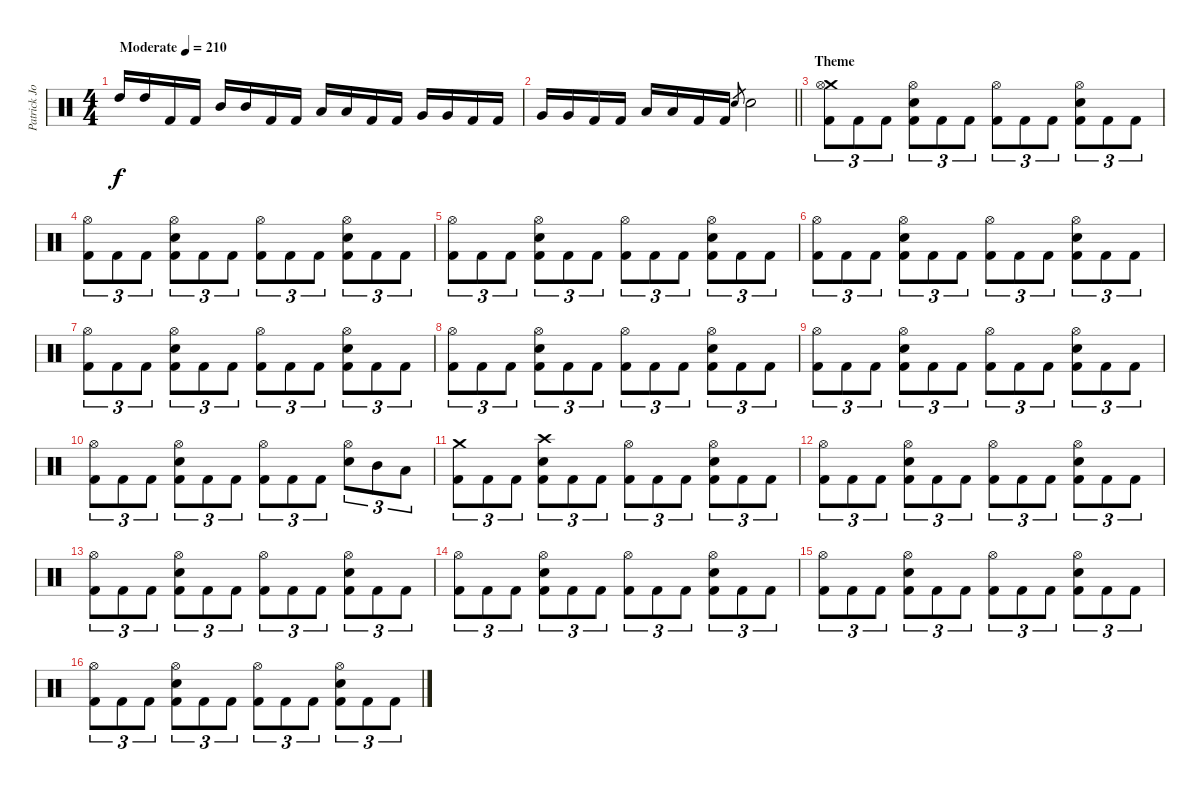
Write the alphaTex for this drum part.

\track ("Patrick Johansson" "Patrick Jo") {instrument percussion}
\staff {score}
\articulation defaults
\ts (4 4)
\tempo (210 "Moderate")
\clef neutral
\ks c "High Tom (hit)".16{dy f} "High Tom (hit)".16 "Kick (hit) 2".16 "Kick (hit) 2".16 "Mid Tom (hit)".16 "Mid Tom (hit)".16 "Kick (hit) 2".16 "Kick (hit) 2".16 "Low Tom (hit)".16 "Low Tom (hit)".16 "Kick (hit) 2".16 "Kick (hit) 2".16 "Very Low Tom (hit)".16 "Very Low Tom (hit)".16 "Kick (hit) 2".16 "Kick (hit) 2".16
|
\barLineRight lightlight "Very Low Tom (hit)".16 "Very Low Tom (hit)".16 "Kick (hit) 2".16 "Kick (hit) 2".16 "Low Floor Tom (hit)".16 "Low Floor Tom (hit)".16 "Kick (hit) 2".16 "Kick (hit) 2".16 "Snare (hit) 2".8{gr} "Snare (hit) 2".2
|
\section ("" "Theme")
("Crash medium (hit)" "Hi-Hat (open)" "Kick (hit) 2").8{tu (3 2)} "Kick (hit) 2".8{tu (3 2)} "Kick (hit) 2".8{tu (3 2)} ("Hi-Hat (open)" "Snare (hit) 2" "Kick (hit) 2").8{tu (3 2)} "Kick (hit) 2".8{tu (3 2)} "Kick (hit) 2".8{tu (3 2)} ("Hi-Hat (open)" "Kick (hit) 2").8{tu (3 2)} "Kick (hit) 2".8{tu (3 2)} "Kick (hit) 2".8{tu (3 2)} ("Hi-Hat (open)" "Snare (hit) 2" "Kick (hit) 2").8{tu (3 2)} "Kick (hit) 2".8{tu (3 2)} "Kick (hit) 2".8{tu (3 2)} |
("Hi-Hat (open)" "Kick (hit) 2").8{tu (3 2)} "Kick (hit) 2".8{tu (3 2)} "Kick (hit) 2".8{tu (3 2)} ("Hi-Hat (open)" "Snare (hit) 2" "Kick (hit) 2").8{tu (3 2)} "Kick (hit) 2".8{tu (3 2)} "Kick (hit) 2".8{tu (3 2)} ("Hi-Hat (open)" "Kick (hit) 2").8{tu (3 2)} "Kick (hit) 2".8{tu (3 2)} "Kick (hit) 2".8{tu (3 2)} ("Hi-Hat (open)" "Snare (hit) 2" "Kick (hit) 2").8{tu (3 2)} "Kick (hit) 2".8{tu (3 2)} "Kick (hit) 2".8{tu (3 2)} |
("Hi-Hat (open)" "Kick (hit) 2").8{tu (3 2)} "Kick (hit) 2".8{tu (3 2)} "Kick (hit) 2".8{tu (3 2)} ("Hi-Hat (open)" "Snare (hit) 2" "Kick (hit) 2").8{tu (3 2)} "Kick (hit) 2".8{tu (3 2)} "Kick (hit) 2".8{tu (3 2)} ("Hi-Hat (open)" "Kick (hit) 2").8{tu (3 2)} "Kick (hit) 2".8{tu (3 2)} "Kick (hit) 2".8{tu (3 2)} ("Hi-Hat (open)" "Snare (hit) 2" "Kick (hit) 2").8{tu (3 2)} "Kick (hit) 2".8{tu (3 2)} "Kick (hit) 2".8{tu (3 2)} |
("Hi-Hat (open)" "Kick (hit) 2").8{tu (3 2)} "Kick (hit) 2".8{tu (3 2)} "Kick (hit) 2".8{tu (3 2)} ("Hi-Hat (open)" "Snare (hit) 2" "Kick (hit) 2").8{tu (3 2)} "Kick (hit) 2".8{tu (3 2)} "Kick (hit) 2".8{tu (3 2)} ("Hi-Hat (open)" "Kick (hit) 2").8{tu (3 2)} "Kick (hit) 2".8{tu (3 2)} "Kick (hit) 2".8{tu (3 2)} ("Hi-Hat (open)" "Snare (hit) 2" "Kick (hit) 2").8{tu (3 2)} "Kick (hit) 2".8{tu (3 2)} "Kick (hit) 2".8{tu (3 2)} |
("Hi-Hat (open)" "Kick (hit) 2").8{tu (3 2)} "Kick (hit) 2".8{tu (3 2)} "Kick (hit) 2".8{tu (3 2)} ("Hi-Hat (open)" "Snare (hit) 2" "Kick (hit) 2").8{tu (3 2)} "Kick (hit) 2".8{tu (3 2)} "Kick (hit) 2".8{tu (3 2)} ("Hi-Hat (open)" "Kick (hit) 2").8{tu (3 2)} "Kick (hit) 2".8{tu (3 2)} "Kick (hit) 2".8{tu (3 2)} ("Hi-Hat (open)" "Snare (hit) 2" "Kick (hit) 2").8{tu (3 2)} "Kick (hit) 2".8{tu (3 2)} "Kick (hit) 2".8{tu (3 2)} |
("Hi-Hat (open)" "Kick (hit) 2").8{tu (3 2)} "Kick (hit) 2".8{tu (3 2)} "Kick (hit) 2".8{tu (3 2)} ("Hi-Hat (open)" "Snare (hit) 2" "Kick (hit) 2").8{tu (3 2)} "Kick (hit) 2".8{tu (3 2)} "Kick (hit) 2".8{tu (3 2)} ("Hi-Hat (open)" "Kick (hit) 2").8{tu (3 2)} "Kick (hit) 2".8{tu (3 2)} "Kick (hit) 2".8{tu (3 2)} ("Hi-Hat (open)" "Snare (hit) 2" "Kick (hit) 2").8{tu (3 2)} "Kick (hit) 2".8{tu (3 2)} "Kick (hit) 2".8{tu (3 2)} |
("Hi-Hat (open)" "Kick (hit) 2").8{tu (3 2)} "Kick (hit) 2".8{tu (3 2)} "Kick (hit) 2".8{tu (3 2)} ("Hi-Hat (open)" "Snare (hit) 2" "Kick (hit) 2").8{tu (3 2)} "Kick (hit) 2".8{tu (3 2)} "Kick (hit) 2".8{tu (3 2)} ("Hi-Hat (open)" "Kick (hit) 2").8{tu (3 2)} "Kick (hit) 2".8{tu (3 2)} "Kick (hit) 2".8{tu (3 2)} ("Hi-Hat (open)" "Snare (hit) 2" "Kick (hit) 2").8{tu (3 2)} "Kick (hit) 2".8{tu (3 2)} "Kick (hit) 2".8{tu (3 2)} |
("Hi-Hat (open)" "Kick (hit) 2").8{tu (3 2)} "Kick (hit) 2".8{tu (3 2)} "Kick (hit) 2".8{tu (3 2)} ("Hi-Hat (open)" "Snare (hit) 2" "Kick (hit) 2").8{tu (3 2)} "Kick (hit) 2".8{tu (3 2)} "Kick (hit) 2".8{tu (3 2)} ("Hi-Hat (open)" "Kick (hit) 2").8{tu (3 2)} "Kick (hit) 2".8{tu (3 2)} "Kick (hit) 2".8{tu (3 2)} ("Hi-Hat (open)" "Snare (hit) 2").8{tu (3 2)} "Mid Tom (hit)".8{tu (3 2)} "Low Tom (hit)".8{tu (3 2)} |
("Crash medium (hit)" "Kick (hit) 2").8{tu (3 2)} "Kick (hit) 2".8{tu (3 2)} "Kick (hit) 2".8{tu (3 2)} ("Crash high (hit)" "Snare (hit) 2" "Kick (hit) 2").8{tu (3 2)} "Kick (hit) 2".8{tu (3 2)} "Kick (hit) 2".8{tu (3 2)} ("Hi-Hat (open)" "Kick (hit) 2").8{tu (3 2)} "Kick (hit) 2".8{tu (3 2)} "Kick (hit) 2".8{tu (3 2)} ("Hi-Hat (open)" "Snare (hit) 2" "Kick (hit) 2").8{tu (3 2)} "Kick (hit) 2".8{tu (3 2)} "Kick (hit) 2".8{tu (3 2)} |
("Hi-Hat (open)" "Kick (hit) 2").8{tu (3 2)} "Kick (hit) 2".8{tu (3 2)} "Kick (hit) 2".8{tu (3 2)} ("Hi-Hat (open)" "Snare (hit) 2" "Kick (hit) 2").8{tu (3 2)} "Kick (hit) 2".8{tu (3 2)} "Kick (hit) 2".8{tu (3 2)} ("Hi-Hat (open)" "Kick (hit) 2").8{tu (3 2)} "Kick (hit) 2".8{tu (3 2)} "Kick (hit) 2".8{tu (3 2)} ("Hi-Hat (open)" "Snare (hit) 2" "Kick (hit) 2").8{tu (3 2)} "Kick (hit) 2".8{tu (3 2)} "Kick (hit) 2".8{tu (3 2)} |
("Hi-Hat (open)" "Kick (hit) 2").8{tu (3 2)} "Kick (hit) 2".8{tu (3 2)} "Kick (hit) 2".8{tu (3 2)} ("Hi-Hat (open)" "Snare (hit) 2" "Kick (hit) 2").8{tu (3 2)} "Kick (hit) 2".8{tu (3 2)} "Kick (hit) 2".8{tu (3 2)} ("Hi-Hat (open)" "Kick (hit) 2").8{tu (3 2)} "Kick (hit) 2".8{tu (3 2)} "Kick (hit) 2".8{tu (3 2)} ("Hi-Hat (open)" "Snare (hit) 2" "Kick (hit) 2").8{tu (3 2)} "Kick (hit) 2".8{tu (3 2)} "Kick (hit) 2".8{tu (3 2)} |
("Hi-Hat (open)" "Kick (hit) 2").8{tu (3 2)} "Kick (hit) 2".8{tu (3 2)} "Kick (hit) 2".8{tu (3 2)} ("Hi-Hat (open)" "Snare (hit) 2" "Kick (hit) 2").8{tu (3 2)} "Kick (hit) 2".8{tu (3 2)} "Kick (hit) 2".8{tu (3 2)} ("Hi-Hat (open)" "Kick (hit) 2").8{tu (3 2)} "Kick (hit) 2".8{tu (3 2)} "Kick (hit) 2".8{tu (3 2)} ("Hi-Hat (open)" "Snare (hit) 2" "Kick (hit) 2").8{tu (3 2)} "Kick (hit) 2".8{tu (3 2)} "Kick (hit) 2".8{tu (3 2)} |
("Hi-Hat (open)" "Kick (hit) 2").8{tu (3 2)} "Kick (hit) 2".8{tu (3 2)} "Kick (hit) 2".8{tu (3 2)} ("Hi-Hat (open)" "Snare (hit) 2" "Kick (hit) 2").8{tu (3 2)} "Kick (hit) 2".8{tu (3 2)} "Kick (hit) 2".8{tu (3 2)} ("Hi-Hat (open)" "Kick (hit) 2").8{tu (3 2)} "Kick (hit) 2".8{tu (3 2)} "Kick (hit) 2".8{tu (3 2)} ("Hi-Hat (open)" "Snare (hit) 2" "Kick (hit) 2").8{tu (3 2)} "Kick (hit) 2".8{tu (3 2)} "Kick (hit) 2".8{tu (3 2)} |
("Hi-Hat (open)" "Kick (hit) 2").8{tu (3 2)} "Kick (hit) 2".8{tu (3 2)} "Kick (hit) 2".8{tu (3 2)} ("Hi-Hat (open)" "Snare (hit) 2" "Kick (hit) 2").8{tu (3 2)} "Kick (hit) 2".8{tu (3 2)} "Kick (hit) 2".8{tu (3 2)} ("Hi-Hat (open)" "Kick (hit) 2").8{tu (3 2)} "Kick (hit) 2".8{tu (3 2)} "Kick (hit) 2".8{tu (3 2)} ("Hi-Hat (open)" "Snare (hit) 2" "Kick (hit) 2").8{tu (3 2)} "Kick (hit) 2".8{tu (3 2)} "Kick (hit) 2".8{tu (3 2)}
